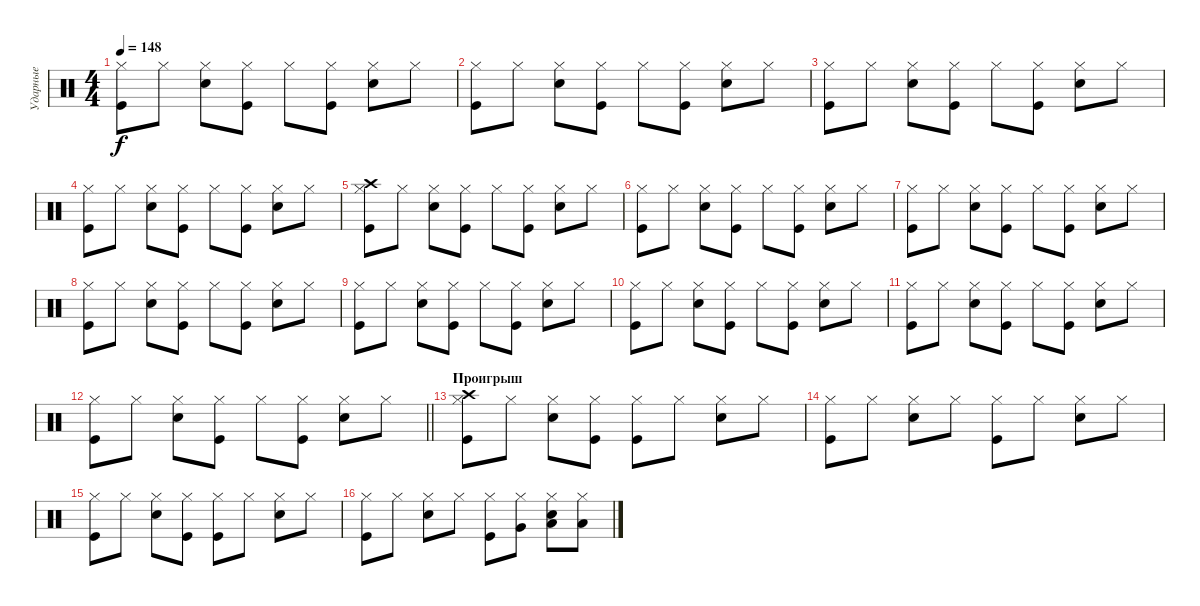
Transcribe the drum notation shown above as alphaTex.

\track ("Ударные" "Ударные") {instrument percussion}
\staff {score}
\articulation defaults
\ts (4 4)
\tempo 148
\clef neutral
\ks c
("Kick (hit)" "Hi-Hat (closed)").8{dy f} "Hi-Hat (closed)".8 ("Snare (hit) 2" "Hi-Hat (closed)").8 ("Kick (hit)" "Hi-Hat (closed)").8 "Hi-Hat (closed)".8 ("Kick (hit)" "Hi-Hat (closed)").8 ("Snare (hit) 2" "Hi-Hat (closed)").8 "Hi-Hat (closed)".8 |
("Kick (hit)" "Hi-Hat (closed)").8 "Hi-Hat (closed)".8 ("Snare (hit) 2" "Hi-Hat (closed)").8 ("Kick (hit)" "Hi-Hat (closed)").8 "Hi-Hat (closed)".8 ("Kick (hit)" "Hi-Hat (closed)").8 ("Snare (hit) 2" "Hi-Hat (closed)").8 "Hi-Hat (closed)".8 |
("Kick (hit)" "Hi-Hat (closed)").8 "Hi-Hat (closed)".8 ("Snare (hit) 2" "Hi-Hat (closed)").8 ("Kick (hit)" "Hi-Hat (closed)").8 "Hi-Hat (closed)".8 ("Kick (hit)" "Hi-Hat (closed)").8 ("Snare (hit) 2" "Hi-Hat (closed)").8 "Hi-Hat (closed)".8 |
("Kick (hit)" "Hi-Hat (closed)").8 "Hi-Hat (closed)".8 ("Snare (hit) 2" "Hi-Hat (closed)").8 ("Kick (hit)" "Hi-Hat (closed)").8 "Hi-Hat (closed)".8 ("Kick (hit)" "Hi-Hat (closed)").8 ("Snare (hit) 2" "Hi-Hat (closed)").8 "Hi-Hat (closed)".8 |
("Kick (hit)" "Hi-Hat (closed)" "Crash high (hit)").8 "Hi-Hat (closed)".8 ("Snare (hit) 2" "Hi-Hat (closed)").8 ("Kick (hit)" "Hi-Hat (closed)").8 "Hi-Hat (closed)".8 ("Kick (hit)" "Hi-Hat (closed)").8 ("Snare (hit) 2" "Hi-Hat (closed)").8 "Hi-Hat (closed)".8 |
("Kick (hit)" "Hi-Hat (closed)").8 "Hi-Hat (closed)".8 ("Snare (hit) 2" "Hi-Hat (closed)").8 ("Kick (hit)" "Hi-Hat (closed)").8 "Hi-Hat (closed)".8 ("Kick (hit)" "Hi-Hat (closed)").8 ("Snare (hit) 2" "Hi-Hat (closed)").8 "Hi-Hat (closed)".8 |
("Kick (hit)" "Hi-Hat (closed)").8 "Hi-Hat (closed)".8 ("Snare (hit) 2" "Hi-Hat (closed)").8 ("Kick (hit)" "Hi-Hat (closed)").8 "Hi-Hat (closed)".8 ("Kick (hit)" "Hi-Hat (closed)").8 ("Snare (hit) 2" "Hi-Hat (closed)").8 "Hi-Hat (closed)".8 |
("Kick (hit)" "Hi-Hat (closed)").8 "Hi-Hat (closed)".8 ("Snare (hit) 2" "Hi-Hat (closed)").8 ("Kick (hit)" "Hi-Hat (closed)").8 "Hi-Hat (closed)".8 ("Kick (hit)" "Hi-Hat (closed)").8 ("Snare (hit) 2" "Hi-Hat (closed)").8 "Hi-Hat (closed)".8 |
("Kick (hit)" "Hi-Hat (closed)").8 "Hi-Hat (closed)".8 ("Snare (hit) 2" "Hi-Hat (closed)").8 ("Kick (hit)" "Hi-Hat (closed)").8 "Hi-Hat (closed)".8 ("Kick (hit)" "Hi-Hat (closed)").8 ("Snare (hit) 2" "Hi-Hat (closed)").8 "Hi-Hat (closed)".8 |
("Kick (hit)" "Hi-Hat (closed)").8 "Hi-Hat (closed)".8 ("Snare (hit) 2" "Hi-Hat (closed)").8 ("Kick (hit)" "Hi-Hat (closed)").8 "Hi-Hat (closed)".8 ("Kick (hit)" "Hi-Hat (closed)").8 ("Snare (hit) 2" "Hi-Hat (closed)").8 "Hi-Hat (closed)".8 |
("Kick (hit)" "Hi-Hat (closed)").8 "Hi-Hat (closed)".8 ("Snare (hit) 2" "Hi-Hat (closed)").8 ("Kick (hit)" "Hi-Hat (closed)").8 "Hi-Hat (closed)".8 ("Kick (hit)" "Hi-Hat (closed)").8 ("Snare (hit) 2" "Hi-Hat (closed)").8 "Hi-Hat (closed)".8 |
\barLineRight lightlight
("Kick (hit)" "Hi-Hat (closed)").8 "Hi-Hat (closed)".8 ("Snare (hit) 2" "Hi-Hat (closed)").8 ("Kick (hit)" "Hi-Hat (closed)").8 "Hi-Hat (closed)".8 ("Kick (hit)" "Hi-Hat (closed)").8 ("Snare (hit) 2" "Hi-Hat (closed)").8 "Hi-Hat (closed)".8 |
\section ("" "Проигрыш")
("Kick (hit)" "Hi-Hat (closed)" "Crash high (hit)").8 "Hi-Hat (closed)".8 ("Snare (hit) 2" "Hi-Hat (closed)").8 ("Kick (hit)" "Hi-Hat (closed)").8 ("Kick (hit)" "Hi-Hat (closed)").8 "Hi-Hat (closed)".8 ("Snare (hit) 2" "Hi-Hat (closed)").8 "Hi-Hat (closed)".8 |
("Kick (hit)" "Hi-Hat (closed)").8 "Hi-Hat (closed)".8 ("Snare (hit) 2" "Hi-Hat (closed)").8 "Hi-Hat (closed)".8 ("Kick (hit)" "Hi-Hat (closed)").8 "Hi-Hat (closed)".8 ("Snare (hit) 2" "Hi-Hat (closed)").8 "Hi-Hat (closed)".8 |
("Kick (hit)" "Hi-Hat (closed)").8 "Hi-Hat (closed)".8 ("Snare (hit) 2" "Hi-Hat (closed)").8 ("Kick (hit)" "Hi-Hat (closed)").8 ("Kick (hit)" "Hi-Hat (closed)").8 "Hi-Hat (closed)".8 ("Snare (hit) 2" "Hi-Hat (closed)").8 "Hi-Hat (closed)".8 |
("Kick (hit)" "Hi-Hat (closed)").8 "Hi-Hat (closed)".8 ("Snare (hit) 2" "Hi-Hat (closed)").8 "Hi-Hat (closed)".8 ("Kick (hit)" "Hi-Hat (closed)").8 ("Hi-Hat (closed)" "Very Low Tom (hit)").8 ("Snare (hit) 2" "Hi-Hat (closed)" "Low Floor Tom (hit)").8 ("Hi-Hat (closed)" "Low Floor Tom (hit)").8
